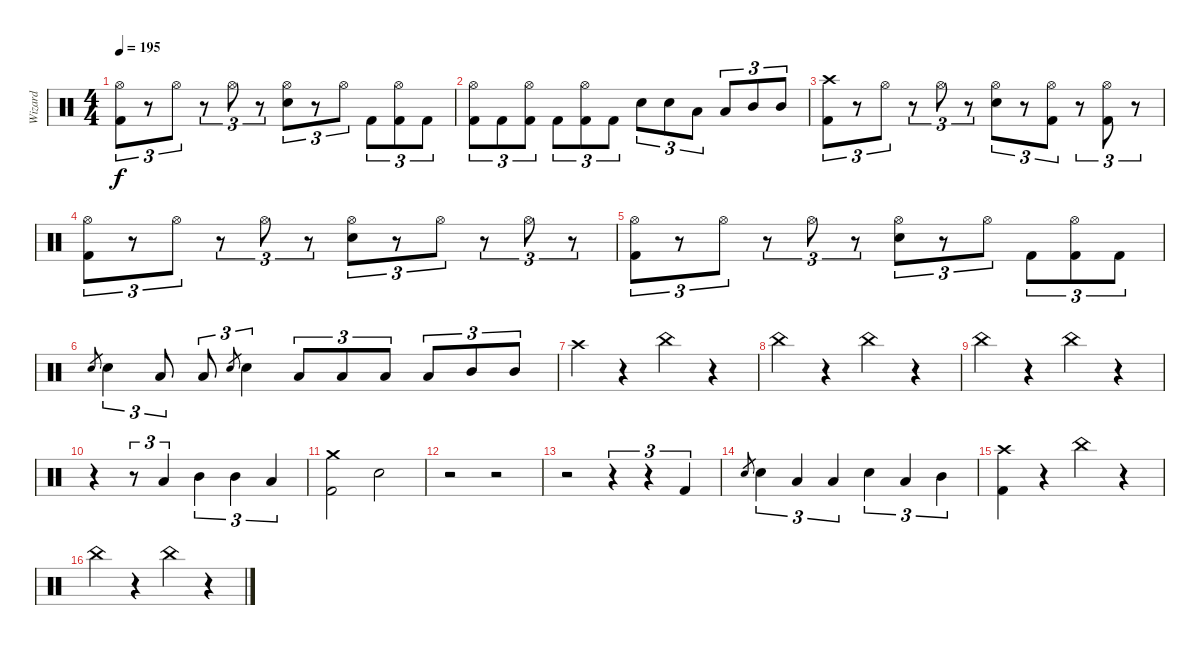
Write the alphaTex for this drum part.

\track ("Wizard" "Wizard") {instrument percussion}
\staff {score}
\articulation defaults
\ts (4 4)
\tempo 195
\clef neutral
\ks c
("Hi-Hat (open)" "Kick (hit) 2").8{tu (3 2) dy f} r.8{tu (3 2)} "Hi-Hat (open)".8{tu (3 2)} r.8{tu (3 2)} "Hi-Hat (open)".8{tu (3 2)} r.8{tu (3 2)} ("Hi-Hat (open)" "Snare (hit) 2").8{tu (3 2)} r.8{tu (3 2)} "Hi-Hat (open)".8{tu (3 2)} "Kick (hit) 2".8{tu (3 2)} ("Hi-Hat (open)" "Kick (hit) 2").8{tu (3 2)} "Kick (hit) 2".8{tu (3 2)} |
("Hi-Hat (open)" "Kick (hit) 2").8{tu (3 2)} "Kick (hit) 2".8{tu (3 2)} ("Hi-Hat (open)" "Kick (hit) 2").8{tu (3 2)} "Kick (hit) 2".8{tu (3 2)} ("Hi-Hat (open)" "Kick (hit) 2").8{tu (3 2)} "Kick (hit) 2".8{tu (3 2)} "Snare (hit) 2".8{tu (3 2)} "Snare (hit) 2".8{tu (3 2)} "Low Tom (hit)".8{tu (3 2)} "Low Tom (hit)".8{tu (3 2)} "Mid Tom (hit)".8{tu (3 2)} "Mid Tom (hit)".8{tu (3 2)} |
("Crash high (hit)" "Kick (hit) 2").8{tu (3 2)} r.8{tu (3 2)} "Hi-Hat (open)".8{tu (3 2)} r.8{tu (3 2)} "Hi-Hat (open)".8{tu (3 2)} r.8{tu (3 2)} ("Hi-Hat (open)" "Snare (hit) 2").8{tu (3 2)} r.8{tu (3 2)} ("Hi-Hat (open)" "Kick (hit) 2").8{tu (3 2)} r.8{tu (3 2)} ("Hi-Hat (open)" "Kick (hit) 2").8{tu (3 2)} r.8{tu (3 2)} |
("Hi-Hat (open)" "Kick (hit) 2").8{tu (3 2)} r.8{tu (3 2)} "Hi-Hat (open)".8{tu (3 2)} r.8{tu (3 2)} "Hi-Hat (open)".8{tu (3 2)} r.8{tu (3 2)} ("Hi-Hat (open)" "Snare (hit) 2").8{tu (3 2)} r.8{tu (3 2)} "Hi-Hat (open)".8{tu (3 2)} r.8{tu (3 2)} "Hi-Hat (open)".8{tu (3 2)} r.8{tu (3 2)} |
("Hi-Hat (open)" "Kick (hit) 2").8{tu (3 2)} r.8{tu (3 2)} "Hi-Hat (open)".8{tu (3 2)} r.8{tu (3 2)} "Hi-Hat (open)".8{tu (3 2)} r.8{tu (3 2)} ("Hi-Hat (open)" "Snare (hit) 2").8{tu (3 2)} r.8{tu (3 2)} "Hi-Hat (open)".8{tu (3 2)} "Kick (hit) 2".8{tu (3 2)} ("Hi-Hat (open)" "Kick (hit) 2").8{tu (3 2)} "Kick (hit) 2".8{tu (3 2)} |
"Snare (hit) 2".8{gr} "Snare (hit) 2".4{tu (3 2)} "Low Tom (hit)".8{tu (3 2)} "Low Tom (hit)".8{tu (3 2)} "Snare (hit) 2".8{gr} "Snare (hit) 2".4{tu (3 2)} "Low Tom (hit)".8{tu (3 2)} "Low Tom (hit)".8{tu (3 2)} "Low Tom (hit)".8{tu (3 2)} "Low Tom (hit)".8{tu (3 2)} "Mid Tom (hit)".8{tu (3 2)} "Mid Tom (hit)".8{tu (3 2)} |
"Crash high (hit)".4 r.4 "China (hit)".4 r.4 |
"China (hit)".4 r.4 "China (hit)".4 r.4 |
"China (hit)".4 r.4 "China (hit)".4 r.4 |
r.4 r.8{tu (3 2)} "Low Tom (hit)".4{tu (3 2)} "Mid Tom (hit)".4{tu (3 2)} "Mid Tom (hit)".4{tu (3 2)} "Low Tom (hit)".4{tu (3 2)} |
("Crash medium (hit)" "Kick (hit) 2").2 "Snare (hit) 2".2 |
r.2 r.2 |
r.2 r.4{tu (3 2)} r.4{tu (3 2)} "Kick (hit) 2".4{tu (3 2)} |
"Snare (hit) 2".8{gr} "Snare (hit) 2".4{tu (3 2)} "Low Tom (hit)".4{tu (3 2)} "Low Tom (hit)".4{tu (3 2)} "Snare (hit) 2".4{tu (3 2)} "Low Tom (hit)".4{tu (3 2)} "Mid Tom (hit)".4{tu (3 2)} |
("Crash high (hit)" "Kick (hit) 2").4 r.4 "China (hit)".4 r.4 |
"China (hit)".4 r.4 "China (hit)".4 r.4
